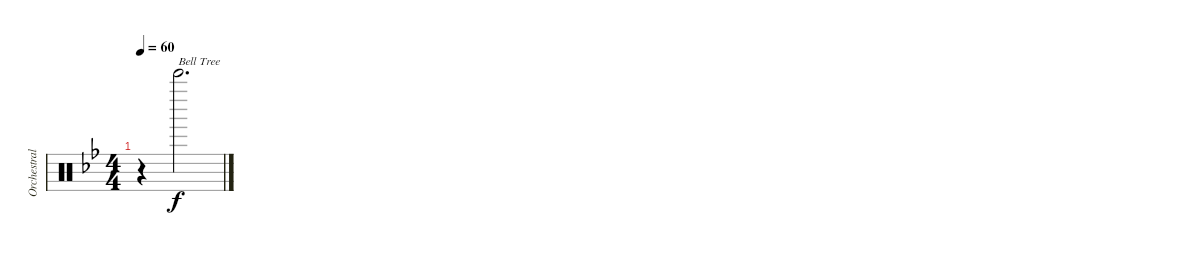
\track ("Orchestral Percussion I" "Orchestral") {instrument percussion}
\staff {score}
\articulation defaults
\ts (4 4)
\tempo 60
\clef neutral
\ks gminor
r.4{dy f} "Bell Tree (hit)".2{d txt "Bell Tree"}
